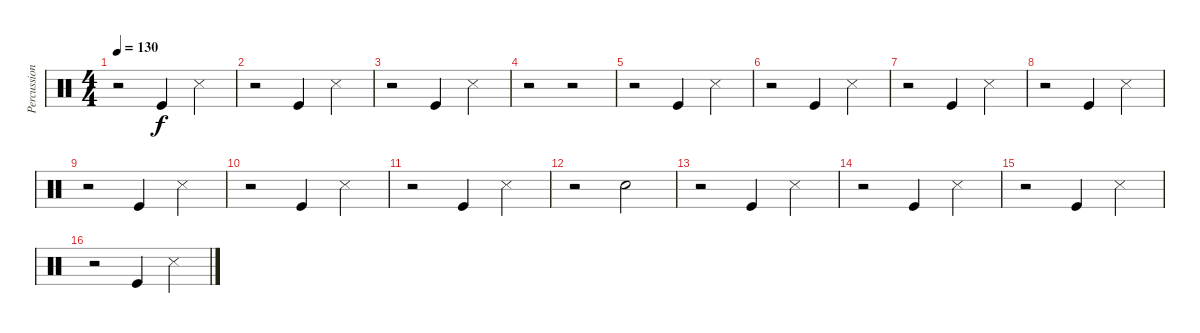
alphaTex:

\track ("Percussion" "Percussion") {instrument percussion}
\staff {score}
\articulation defaults
\ts (4 4)
\tempo 130
\clef neutral
\ks c
r.2{dy f} "Kick (hit)".4 "Snare (side stick) 3".4 |
r.2 "Kick (hit)".4 "Snare (side stick) 3".4 |
r.2 "Kick (hit)".4 "Snare (side stick) 3".4 |
r.2 r.2 |
r.2 "Kick (hit)".4 "Snare (side stick) 3".4 |
r.2 "Kick (hit)".4 "Snare (side stick) 3".4 |
r.2 "Kick (hit)".4 "Snare (side stick) 3".4 |
r.2 "Kick (hit)".4 "Snare (side stick) 3".4 |
r.2 "Kick (hit)".4 "Snare (side stick) 3".4 |
r.2 "Kick (hit)".4 "Snare (side stick) 3".4 |
r.2 "Kick (hit)".4 "Snare (side stick) 3".4 |
r.2 "Snare (hit) 2".2 |
r.2 "Kick (hit)".4 "Snare (side stick) 3".4 |
r.2 "Kick (hit)".4 "Snare (side stick) 3".4 |
r.2 "Kick (hit)".4 "Snare (side stick) 3".4 |
r.2 "Kick (hit)".4 "Snare (side stick) 3".4
